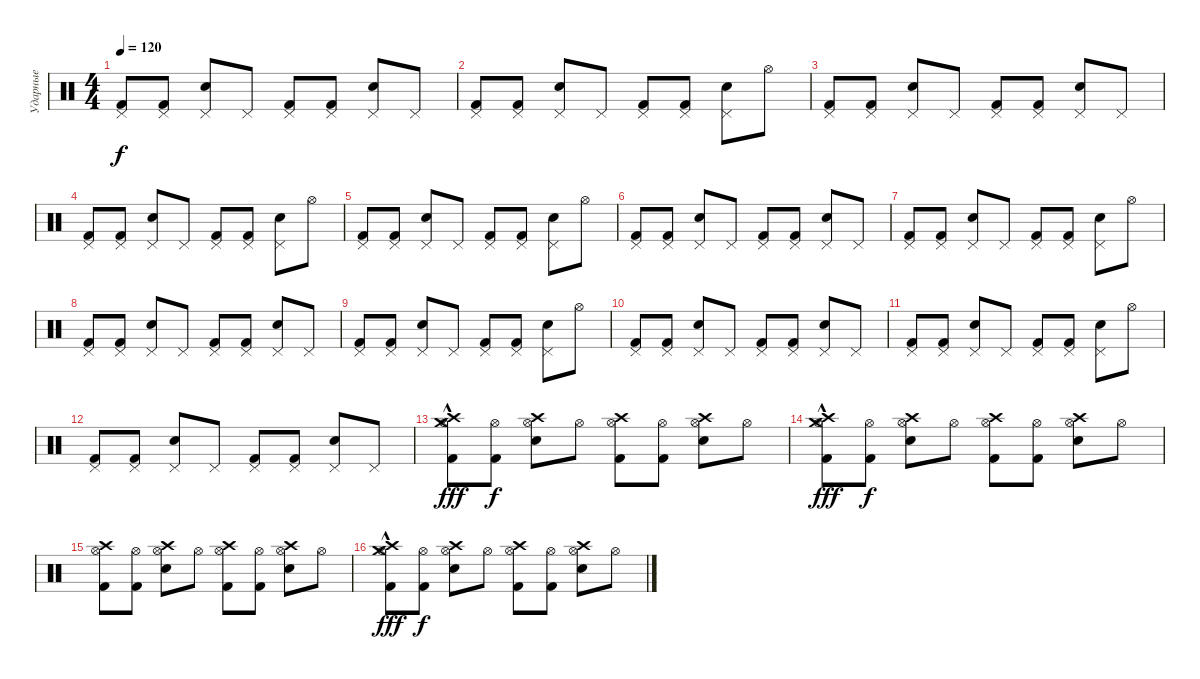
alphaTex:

\track ("Ударные" "Ударные") {instrument percussion}
\staff {score}
\articulation defaults
\ts (4 4)
\tempo 120
\clef neutral
\ks c
("Pedal Hi-Hat (hit)" "Kick (hit) 2").8{dy f} ("Pedal Hi-Hat (hit)" "Kick (hit) 2").8 ("Pedal Hi-Hat (hit)" "Electric Snare (hit)").8 "Pedal Hi-Hat (hit)".8 ("Pedal Hi-Hat (hit)" "Kick (hit) 2").8 ("Pedal Hi-Hat (hit)" "Kick (hit) 2").8 ("Pedal Hi-Hat (hit)" "Electric Snare (hit)").8 "Pedal Hi-Hat (hit)".8 |
("Pedal Hi-Hat (hit)" "Kick (hit) 2").8 ("Pedal Hi-Hat (hit)" "Kick (hit) 2").8 ("Pedal Hi-Hat (hit)" "Electric Snare (hit)").8 "Pedal Hi-Hat (hit)".8 ("Pedal Hi-Hat (hit)" "Kick (hit) 2").8 ("Pedal Hi-Hat (hit)" "Kick (hit) 2").8 ("Pedal Hi-Hat (hit)" "Electric Snare (hit)").8 "Hi-Hat (open)".8 |
("Pedal Hi-Hat (hit)" "Kick (hit) 2").8 ("Pedal Hi-Hat (hit)" "Kick (hit) 2").8 ("Pedal Hi-Hat (hit)" "Electric Snare (hit)").8 "Pedal Hi-Hat (hit)".8 ("Pedal Hi-Hat (hit)" "Kick (hit) 2").8 ("Pedal Hi-Hat (hit)" "Kick (hit) 2").8 ("Pedal Hi-Hat (hit)" "Electric Snare (hit)").8 "Pedal Hi-Hat (hit)".8 |
("Pedal Hi-Hat (hit)" "Kick (hit) 2").8 ("Pedal Hi-Hat (hit)" "Kick (hit) 2").8 ("Pedal Hi-Hat (hit)" "Electric Snare (hit)").8 "Pedal Hi-Hat (hit)".8 ("Pedal Hi-Hat (hit)" "Kick (hit) 2").8 ("Pedal Hi-Hat (hit)" "Kick (hit) 2").8 ("Pedal Hi-Hat (hit)" "Electric Snare (hit)").8 "Hi-Hat (open)".8 |
("Pedal Hi-Hat (hit)" "Kick (hit) 2").8 ("Pedal Hi-Hat (hit)" "Kick (hit) 2").8 ("Pedal Hi-Hat (hit)" "Electric Snare (hit)").8 "Pedal Hi-Hat (hit)".8 ("Pedal Hi-Hat (hit)" "Kick (hit) 2").8 ("Pedal Hi-Hat (hit)" "Kick (hit) 2").8 ("Pedal Hi-Hat (hit)" "Electric Snare (hit)").8 "Hi-Hat (open)".8 |
("Pedal Hi-Hat (hit)" "Kick (hit) 2").8 ("Pedal Hi-Hat (hit)" "Kick (hit) 2").8 ("Pedal Hi-Hat (hit)" "Electric Snare (hit)").8 "Pedal Hi-Hat (hit)".8 ("Pedal Hi-Hat (hit)" "Kick (hit) 2").8 ("Pedal Hi-Hat (hit)" "Kick (hit) 2").8 ("Pedal Hi-Hat (hit)" "Electric Snare (hit)").8 "Pedal Hi-Hat (hit)".8 |
("Pedal Hi-Hat (hit)" "Kick (hit) 2").8 ("Pedal Hi-Hat (hit)" "Kick (hit) 2").8 ("Pedal Hi-Hat (hit)" "Electric Snare (hit)").8 "Pedal Hi-Hat (hit)".8 ("Pedal Hi-Hat (hit)" "Kick (hit) 2").8 ("Pedal Hi-Hat (hit)" "Kick (hit) 2").8 ("Pedal Hi-Hat (hit)" "Electric Snare (hit)").8 "Hi-Hat (open)".8 |
("Pedal Hi-Hat (hit)" "Kick (hit) 2").8 ("Pedal Hi-Hat (hit)" "Kick (hit) 2").8 ("Pedal Hi-Hat (hit)" "Electric Snare (hit)").8 "Pedal Hi-Hat (hit)".8 ("Pedal Hi-Hat (hit)" "Kick (hit) 2").8 ("Pedal Hi-Hat (hit)" "Kick (hit) 2").8 ("Pedal Hi-Hat (hit)" "Electric Snare (hit)").8 "Pedal Hi-Hat (hit)".8 |
("Pedal Hi-Hat (hit)" "Kick (hit) 2").8 ("Pedal Hi-Hat (hit)" "Kick (hit) 2").8 ("Pedal Hi-Hat (hit)" "Electric Snare (hit)").8 "Pedal Hi-Hat (hit)".8 ("Pedal Hi-Hat (hit)" "Kick (hit) 2").8 ("Pedal Hi-Hat (hit)" "Kick (hit) 2").8 ("Pedal Hi-Hat (hit)" "Electric Snare (hit)").8 "Hi-Hat (open)".8 |
("Pedal Hi-Hat (hit)" "Kick (hit) 2").8 ("Pedal Hi-Hat (hit)" "Kick (hit) 2").8 ("Pedal Hi-Hat (hit)" "Electric Snare (hit)").8 "Pedal Hi-Hat (hit)".8 ("Pedal Hi-Hat (hit)" "Kick (hit) 2").8 ("Pedal Hi-Hat (hit)" "Kick (hit) 2").8 ("Pedal Hi-Hat (hit)" "Electric Snare (hit)").8 "Pedal Hi-Hat (hit)".8 |
("Pedal Hi-Hat (hit)" "Kick (hit) 2").8 ("Pedal Hi-Hat (hit)" "Kick (hit) 2").8 ("Pedal Hi-Hat (hit)" "Electric Snare (hit)").8 "Pedal Hi-Hat (hit)".8 ("Pedal Hi-Hat (hit)" "Kick (hit) 2").8 ("Pedal Hi-Hat (hit)" "Kick (hit) 2").8 ("Pedal Hi-Hat (hit)" "Electric Snare (hit)").8 "Hi-Hat (open)".8 |
("Pedal Hi-Hat (hit)" "Kick (hit) 2").8 ("Pedal Hi-Hat (hit)" "Kick (hit) 2").8 ("Pedal Hi-Hat (hit)" "Electric Snare (hit)").8 "Pedal Hi-Hat (hit)".8 ("Pedal Hi-Hat (hit)" "Kick (hit) 2").8 ("Pedal Hi-Hat (hit)" "Kick (hit) 2").8 ("Pedal Hi-Hat (hit)" "Electric Snare (hit)").8 "Pedal Hi-Hat (hit)".8 |
("Crash high (hit)"{hac} "Hi-Hat (open)"{hac} "Crash medium (hit)"{hac} "Kick (hit) 2").8{dy fff} ("Hi-Hat (open)" "Kick (hit) 2").8{dy f} ("Crash high (hit)" "Hi-Hat (open)" "Electric Snare (hit)").8 "Hi-Hat (open)".8 ("Crash high (hit)" "Hi-Hat (open)" "Kick (hit) 2").8 ("Hi-Hat (open)" "Kick (hit) 2").8 ("Crash high (hit)" "Hi-Hat (open)" "Electric Snare (hit)").8 "Hi-Hat (open)".8 |
("Crash high (hit)"{hac} "Hi-Hat (open)"{hac} "Crash medium (hit)"{hac} "Kick (hit) 2").8{dy fff} ("Hi-Hat (open)" "Kick (hit) 2").8{dy f} ("Crash high (hit)" "Hi-Hat (open)" "Electric Snare (hit)").8 "Hi-Hat (open)".8 ("Crash high (hit)" "Hi-Hat (open)" "Kick (hit) 2").8 ("Hi-Hat (open)" "Kick (hit) 2").8 ("Crash high (hit)" "Hi-Hat (open)" "Electric Snare (hit)").8 "Hi-Hat (open)".8 |
("Crash high (hit)" "Hi-Hat (open)" "Kick (hit) 2").8 ("Hi-Hat (open)" "Kick (hit) 2").8 ("Crash high (hit)" "Hi-Hat (open)" "Electric Snare (hit)").8 "Hi-Hat (open)".8 ("Crash high (hit)" "Hi-Hat (open)" "Kick (hit) 2").8 ("Hi-Hat (open)" "Kick (hit) 2").8 ("Crash high (hit)" "Hi-Hat (open)" "Electric Snare (hit)").8 "Hi-Hat (open)".8 |
("Crash high (hit)"{hac} "Hi-Hat (open)"{hac} "Crash medium (hit)"{hac} "Kick (hit) 2").8{dy fff} ("Hi-Hat (open)" "Kick (hit) 2").8{dy f} ("Crash high (hit)" "Hi-Hat (open)" "Electric Snare (hit)").8 "Hi-Hat (open)".8 ("Crash high (hit)" "Hi-Hat (open)" "Kick (hit) 2").8 ("Hi-Hat (open)" "Kick (hit) 2").8 ("Crash high (hit)" "Hi-Hat (open)" "Electric Snare (hit)").8 "Hi-Hat (open)".8
